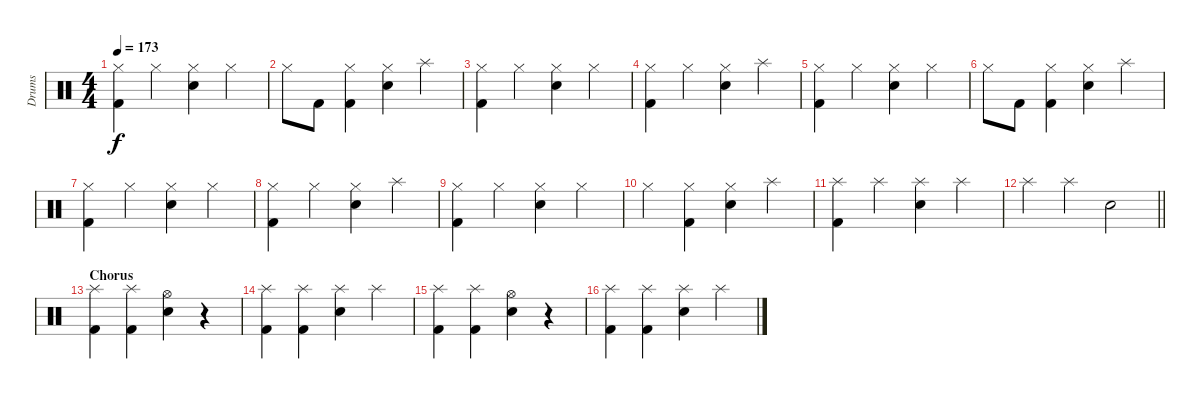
\track ("Drums" "Drums") {instrument percussion}
\staff {score}
\articulation defaults
\ts (4 4)
\tempo 173
\clef neutral
\ks c
("Hi-Hat (closed)" "Kick (hit) 2").4{dy f} "Hi-Hat (closed)".4 ("Hi-Hat (closed)" "Snare (hit) 2").4 "Hi-Hat (closed)".4 |
"Hi-Hat (closed)".8 "Kick (hit) 2".8 ("Hi-Hat (closed)" "Kick (hit) 2").4 ("Hi-Hat (closed)" "Snare (hit) 2").4 "Splash (hit)".4 |
("Hi-Hat (closed)" "Kick (hit) 2").4 "Hi-Hat (closed)".4 ("Hi-Hat (closed)" "Snare (hit) 2").4 "Hi-Hat (closed)".4 |
("Hi-Hat (closed)" "Kick (hit) 2").4 "Hi-Hat (closed)".4 ("Hi-Hat (closed)" "Snare (hit) 2").4 "Splash (hit)".4 |
("Hi-Hat (closed)" "Kick (hit) 2").4 "Hi-Hat (closed)".4 ("Hi-Hat (closed)" "Snare (hit) 2").4 "Hi-Hat (closed)".4 |
"Hi-Hat (closed)".8 "Kick (hit) 2".8 ("Hi-Hat (closed)" "Kick (hit) 2").4 ("Hi-Hat (closed)" "Snare (hit) 2").4 "Splash (hit)".4 |
("Hi-Hat (closed)" "Kick (hit) 2").4 "Hi-Hat (closed)".4 ("Hi-Hat (closed)" "Snare (hit) 2").4 "Hi-Hat (closed)".4 |
("Hi-Hat (closed)" "Kick (hit) 2").4 "Hi-Hat (closed)".4 ("Hi-Hat (closed)" "Snare (hit) 2").4 "Splash (hit)".4 |
("Hi-Hat (closed)" "Kick (hit) 2").4 "Hi-Hat (closed)".4 ("Hi-Hat (closed)" "Snare (hit) 2").4 "Hi-Hat (closed)".4 |
"Hi-Hat (closed)".4 ("Hi-Hat (closed)" "Kick (hit) 2").4 ("Hi-Hat (closed)" "Snare (hit) 2").4 "Splash (hit)".4 |
("Splash (hit)" "Kick (hit) 2").4 "Splash (hit)".4 ("Splash (hit)" "Snare (hit) 2").4 "Splash (hit)".4 |
\barLineRight lightlight "Splash (hit)".4 "Splash (hit)".4 "Snare (hit) 2".2
|
\section ("" "Chorus")
("Splash (hit)" "Kick (hit) 2").4 ("Splash (hit)" "Kick (hit) 2").4 ("Hi-Hat (open)" "Snare (hit) 2").4 r.4 |
("Splash (hit)" "Kick (hit) 2").4 ("Splash (hit)" "Kick (hit) 2").4 ("Splash (hit)" "Snare (hit) 2").4 "Splash (hit)".4 |
("Splash (hit)" "Kick (hit) 2").4 ("Splash (hit)" "Kick (hit) 2").4 ("Hi-Hat (open)" "Snare (hit) 2").4 r.4 |
("Splash (hit)" "Kick (hit) 2").4 ("Splash (hit)" "Kick (hit) 2").4 ("Splash (hit)" "Snare (hit) 2").4 "Splash (hit)".4
